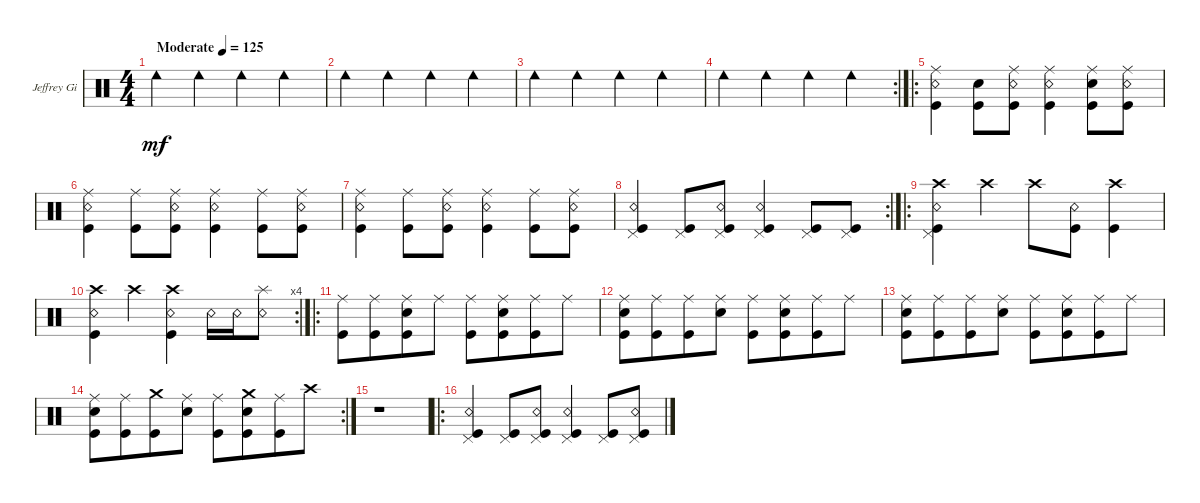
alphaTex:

\defaultSystemsLayout 4
\bracketExtendMode groupsimilarinstruments
\firstSystemTrackNameOrientation horizontal
\otherSystemsTrackNameOrientation horizontal
\track ("Jeffrey Gilbert" "Jeffrey Gi") {instrument percussion}
\staff {score}
\articulation defaults
\ts (4 4)
\beaming (8 4 4)
\tempo (125 "Moderate")
\clef neutral
\scale
0.474178
\ks c "Cowbell low (hit)".4{dy mf} "Cowbell low (hit)".4 "Cowbell low (hit)".4 "Cowbell low (hit)".4
|
\scale
0.262911 "Cowbell low (hit)".4 "Cowbell low (hit)".4 "Cowbell low (hit)".4 "Cowbell low (hit)".4 |
\scale
0.262911 "Cowbell low (hit)".4 "Cowbell low (hit)".4 "Cowbell low (hit)".4 "Cowbell low (hit)".4 |
\rc 2
\scale
0.333333 "Cowbell low (hit)".4 "Cowbell low (hit)".4 "Cowbell low (hit)".4 "Cowbell low (hit)".4 |
\ro
\scale
0.365591 ("Kick (hit)" "Snare (rim shot)" "Ride (middle)").4 ("Kick (hit)" "Snare (hit) 2").8 ("Kick (hit)" "Snare (rim shot)" "Ride (middle)").8 ("Kick (hit)" "Snare (rim shot)" "Ride (middle)").4 ("Kick (hit)" "Snare (hit) 2" "Ride (middle)").8 ("Kick (hit)" "Snare (rim shot)" "Ride (middle)").8 |
\scale
0.301075 ("Kick (hit)" "Snare (rim shot)" "Ride (middle)").4 ("Kick (hit)" "Ride (middle)").8 ("Kick (hit)" "Snare (rim shot)" "Ride (middle)").8 ("Kick (hit)" "Snare (rim shot)" "Ride (middle)").4 ("Kick (hit)" "Ride (middle)").8 ("Kick (hit)" "Snare (rim shot)" "Ride (middle)").8 |
\scale
0.301075 ("Kick (hit)" "Snare (rim shot)" "Ride (middle)").4 ("Kick (hit)" "Ride (middle)").8 ("Kick (hit)" "Snare (rim shot)" "Ride (middle)").8 ("Kick (hit)" "Snare (rim shot)" "Ride (middle)").4 ("Kick (hit)" "Ride (middle)").8 ("Kick (hit)" "Snare (rim shot)" "Ride (middle)").8 |
\rc 2
\scale
0.333333 ("Kick (hit)" "Snare (rim shot)" "Pedal Hi-Hat (hit)").4 ("Kick (hit)" "Pedal Hi-Hat (hit)").8 ("Kick (hit)" "Snare (rim shot)" "Pedal Hi-Hat (hit)").8 ("Kick (hit)" "Snare (rim shot)" "Pedal Hi-Hat (hit)").4 ("Kick (hit)" "Pedal Hi-Hat (hit)").8 ("Kick (hit)" "Pedal Hi-Hat (hit)").8 |
\ro
\scale
0.365591 ("Kick (hit)" "Snare (rim shot)" "Pedal Hi-Hat (hit)" "Crash high (hit)").4 "Crash high (hit)".4 "Crash high (hit)".8 ("Kick (hit)" "Snare (rim shot)").8 ("Crash high (hit)" "Kick (hit)").4 |
\rc 4
\scale
0.333333 ("Crash high (hit)" "Snare (rim shot)" "Kick (hit)").4 "Crash high (hit)".4 ("Crash high (hit)" "Kick (hit)" "Snare (rim shot)").4 "Snare (rim shot)".16 "Snare (rim shot)".16 ("Snare (rim shot)" "Splash (hit)").8 |
\ro
\scale
0.365591 ("Ride (middle)" "Kick (hit)").8 ("Ride (middle)" "Kick (hit)").8 ("Ride (middle)" "Snare (hit) 2" "Kick (hit)").8 "Ride (middle)".8 ("Ride (middle)" "Kick (hit)").8 ("Ride (middle)" "Snare (hit) 2" "Kick (hit)").8 ("Ride (middle)" "Kick (hit)").8 "Ride (middle)".8 |
\scale
0.301075 ("Ride (middle)" "Snare (hit) 2" "Kick (hit)").8 ("Ride (middle)" "Kick (hit)").8 ("Ride (middle)" "Kick (hit)").8 ("Ride (middle)" "Snare (hit) 2").8 ("Ride (middle)" "Kick (hit)").8 ("Ride (middle)" "Snare (hit) 2" "Kick (hit)").8 ("Ride (middle)" "Kick (hit)").8 "Ride (middle)".8 |
("Ride (middle)" "Snare (hit) 2" "Kick (hit)").8 ("Ride (middle)" "Kick (hit)").8 ("Ride (middle)" "Kick (hit)").8 ("Ride (middle)" "Snare (hit) 2").8 ("Ride (middle)" "Kick (hit)").8 ("Ride (middle)" "Snare (hit) 2" "Kick (hit)").8 ("Ride (middle)" "Kick (hit)").8 "Ride (middle)".8 |
\rc 2
("Ride (middle)" "Snare (hit) 2" "Kick (hit)").8 ("Ride (middle)" "Kick (hit)").8 ("Kick (hit)" "Crash medium (hit)").8 ("Ride (middle)" "Snare (hit) 2").8 ("Ride (middle)" "Kick (hit)").8 ("Snare (hit) 2" "Kick (hit)" "Crash medium (hit)").8 ("Ride (middle)" "Kick (hit)").8 "Crash high (hit)".8 |
r.1 |
\ro
("Kick (hit)" "Pedal Hi-Hat (hit)" "Snare (rim shot)").4 ("Kick (hit)" "Pedal Hi-Hat (hit)").8 ("Kick (hit)" "Pedal Hi-Hat (hit)" "Snare (rim shot)").8 ("Kick (hit)" "Pedal Hi-Hat (hit)" "Snare (rim shot)").4 ("Kick (hit)" "Pedal Hi-Hat (hit)").8 ("Kick (hit)" "Pedal Hi-Hat (hit)" "Snare (rim shot)").8
